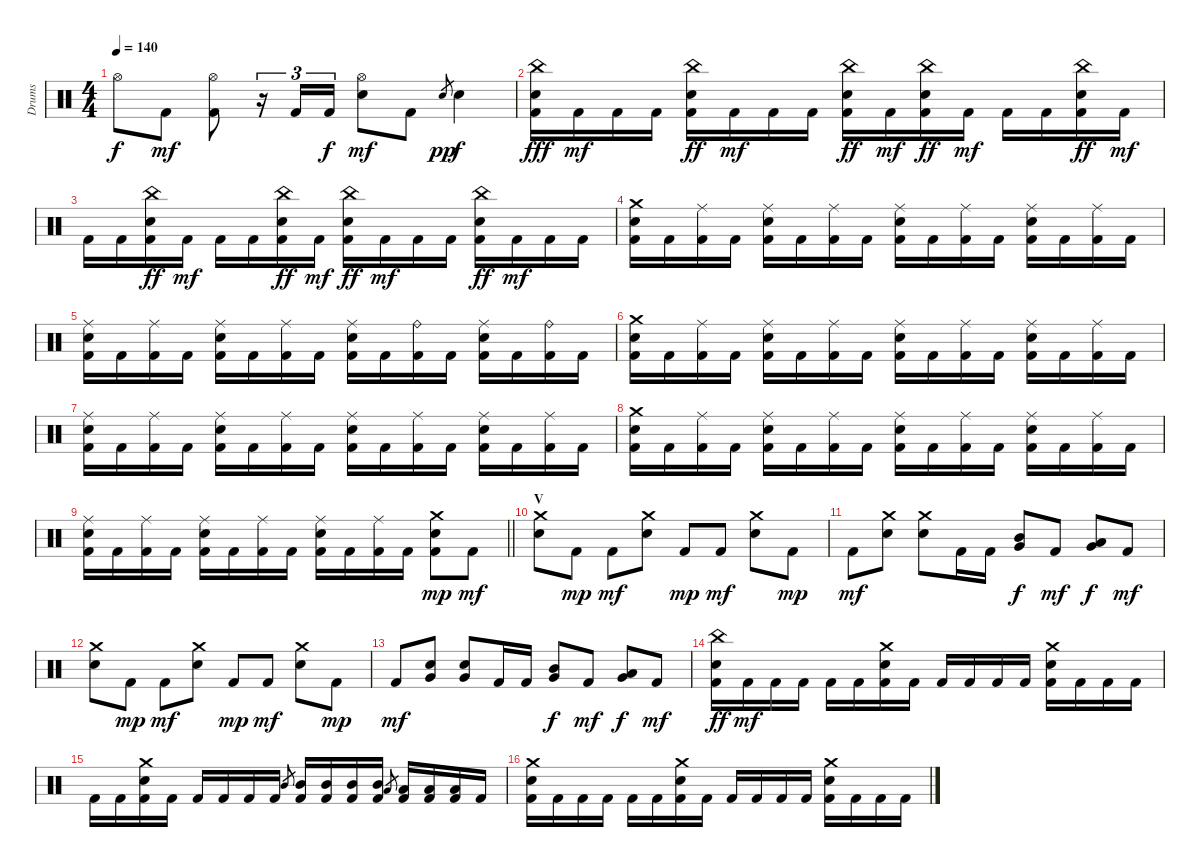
\track ("Drums" "Drums") {instrument percussion}
\staff {score}
\articulation defaults
\ts (4 4)
\tempo 140
\clef neutral
\ks c "Hi-Hat (open)".8{dy f} "Kick (hit) 2".8{dy mf}
("Kick (hit) 2" "Hi-Hat (open)").8 r.16{tu (3 2)} "Kick (hit) 2".16{tu (3 2)} "Kick (hit) 2".16{tu (3 2) dy f} ("Electric Snare (hit)" "Hi-Hat (open)").8{dy mf} "Kick (hit) 2".8 "Electric Snare (hit)".8{gr dy pp} "Electric Snare (hit)".4{dy f} |
("Kick (hit) 2" "Electric Snare (hit)" "China (hit)").16{dy fff} "Kick (hit) 2".16{dy mf} "Kick (hit) 2".16 "Kick (hit) 2".16 ("Kick (hit) 2" "Electric Snare (hit)" "China (hit)").16{dy ff} "Kick (hit) 2".16{dy mf} "Kick (hit) 2".16 "Kick (hit) 2".16 ("Kick (hit) 2" "Electric Snare (hit)" "China (hit)").16{dy ff} "Kick (hit) 2".16{dy mf} ("Kick (hit) 2" "Electric Snare (hit)" "China (hit)").16{dy ff} "Kick (hit) 2".16{dy mf} "Kick (hit) 2".16 "Kick (hit) 2".16 ("Kick (hit) 2" "Electric Snare (hit)" "China (hit)").16{dy ff} "Kick (hit) 2".16{dy mf} |
"Kick (hit) 2".16 "Kick (hit) 2".16 ("Kick (hit) 2" "Electric Snare (hit)" "China (hit)").16{dy ff} "Kick (hit) 2".16{dy mf} "Kick (hit) 2".16 "Kick (hit) 2".16 ("Kick (hit) 2" "Electric Snare (hit)" "China (hit)").16{dy ff} "Kick (hit) 2".16{dy mf} ("Kick (hit) 2" "Electric Snare (hit)" "China (hit)").16{dy ff} "Kick (hit) 2".16{dy mf} "Kick (hit) 2".16 "Kick (hit) 2".16 ("Kick (hit) 2" "Electric Snare (hit)" "China (hit)").16{dy ff} "Kick (hit) 2".16{dy mf} "Kick (hit) 2".16 "Kick (hit) 2".16 |
("Kick (hit) 2" "Electric Snare (hit)" "Crash medium (hit)").16 "Kick (hit) 2".16 ("Kick (hit) 2" "Ride (middle)").16 "Kick (hit) 2".16 ("Kick (hit) 2" "Electric Snare (hit)" "Ride (middle)").16 "Kick (hit) 2".16 ("Kick (hit) 2" "Ride (middle)").16 "Kick (hit) 2".16 ("Kick (hit) 2" "Electric Snare (hit)" "Ride (middle)").16 "Kick (hit) 2".16 ("Kick (hit) 2" "Ride (middle)").16 "Kick (hit) 2".16 ("Kick (hit) 2" "Electric Snare (hit)" "Ride (middle)").16 "Kick (hit) 2".16 ("Kick (hit) 2" "Ride (middle)").16 "Kick (hit) 2".16 |
("Kick (hit) 2" "Electric Snare (hit)" "Ride (middle)").16 "Kick (hit) 2".16 ("Kick (hit) 2" "Ride (middle)").16 "Kick (hit) 2".16 ("Kick (hit) 2" "Electric Snare (hit)" "Ride (middle)").16 "Kick (hit) 2".16 ("Kick (hit) 2" "Ride (middle)").16 "Kick (hit) 2".16 ("Kick (hit) 2" "Electric Snare (hit)" "Ride (middle)").16 "Kick (hit) 2".16 ("Kick (hit) 2" "Ride (bell)").16 "Kick (hit) 2".16 ("Kick (hit) 2" "Electric Snare (hit)" "Ride (middle)").16 "Kick (hit) 2".16 ("Kick (hit) 2" "Ride (bell)").16 "Kick (hit) 2".16 |
("Kick (hit) 2" "Electric Snare (hit)" "Crash medium (hit)").16 "Kick (hit) 2".16 ("Kick (hit) 2" "Ride (middle)").16 "Kick (hit) 2".16 ("Kick (hit) 2" "Electric Snare (hit)" "Ride (middle)").16 "Kick (hit) 2".16 ("Kick (hit) 2" "Ride (middle)").16 "Kick (hit) 2".16 ("Kick (hit) 2" "Electric Snare (hit)" "Ride (middle)").16 "Kick (hit) 2".16 ("Kick (hit) 2" "Ride (middle)").16 "Kick (hit) 2".16 ("Kick (hit) 2" "Electric Snare (hit)" "Ride (middle)").16 "Kick (hit) 2".16 ("Kick (hit) 2" "Ride (middle)").16 "Kick (hit) 2".16 |
("Kick (hit) 2" "Electric Snare (hit)" "Ride (middle)").16 "Kick (hit) 2".16 ("Kick (hit) 2" "Ride (middle)").16 "Kick (hit) 2".16 ("Kick (hit) 2" "Electric Snare (hit)" "Ride (middle)").16 "Kick (hit) 2".16 ("Kick (hit) 2" "Ride (middle)").16 "Kick (hit) 2".16 ("Kick (hit) 2" "Electric Snare (hit)" "Ride (middle)").16 "Kick (hit) 2".16 ("Kick (hit) 2" "Ride (middle)").16 "Kick (hit) 2".16 ("Kick (hit) 2" "Electric Snare (hit)" "Ride (middle)").16 "Kick (hit) 2".16 ("Kick (hit) 2" "Ride (middle)").16 "Kick (hit) 2".16 |
("Kick (hit) 2" "Electric Snare (hit)" "Crash medium (hit)").16 "Kick (hit) 2".16 ("Kick (hit) 2" "Ride (middle)").16 "Kick (hit) 2".16 ("Kick (hit) 2" "Electric Snare (hit)" "Ride (middle)").16 "Kick (hit) 2".16 ("Kick (hit) 2" "Ride (middle)").16 "Kick (hit) 2".16 ("Kick (hit) 2" "Electric Snare (hit)" "Ride (middle)").16 "Kick (hit) 2".16 ("Kick (hit) 2" "Ride (middle)").16 "Kick (hit) 2".16 ("Kick (hit) 2" "Electric Snare (hit)" "Ride (middle)").16 "Kick (hit) 2".16 ("Kick (hit) 2" "Ride (middle)").16 "Kick (hit) 2".16 |
\barLineRight lightlight
("Kick (hit) 2" "Electric Snare (hit)" "Ride (middle)").16 "Kick (hit) 2".16 ("Kick (hit) 2" "Ride (middle)").16 "Kick (hit) 2".16 ("Kick (hit) 2" "Electric Snare (hit)" "Ride (middle)").16 "Kick (hit) 2".16 ("Kick (hit) 2" "Ride (middle)").16 "Kick (hit) 2".16 ("Kick (hit) 2" "Electric Snare (hit)" "Ride (middle)").16 "Kick (hit) 2".16 ("Kick (hit) 2" "Ride (middle)").16 "Kick (hit) 2".16 ("Kick (hit) 2" "Electric Snare (hit)" "Crash medium (hit)").8{dy mp} "Kick (hit) 2".8{dy mf} |
\section ("" "V")
("Electric Snare (hit)" "Crash medium (hit)").8 "Kick (hit) 2".8{dy mp} "Kick (hit) 2".8{dy mf} ("Electric Snare (hit)" "Crash medium (hit)").8 "Kick (hit) 2".8{dy mp} "Kick (hit) 2".8{dy mf} ("Electric Snare (hit)" "Crash medium (hit)").8 "Kick (hit) 2".8{dy mp} |
"Kick (hit) 2".8{dy mf} ("Electric Snare (hit)" "Crash medium (hit)").8 ("Electric Snare (hit)" "Crash medium (hit)").8 "Kick (hit) 2".16 "Kick (hit) 2".16 ("Very Low Tom (hit)" "Mid Tom (hit)").8{dy f} "Kick (hit) 2".8{dy mf} ("Very Low Tom (hit)" "Low Tom (hit)").8{dy f} "Kick (hit) 2".8{dy mf} |
("Electric Snare (hit)" "Crash medium (hit)").8 "Kick (hit) 2".8{dy mp} "Kick (hit) 2".8{dy mf} ("Electric Snare (hit)" "Crash medium (hit)").8 "Kick (hit) 2".8{dy mp} "Kick (hit) 2".8{dy mf} ("Electric Snare (hit)" "Crash medium (hit)").8 "Kick (hit) 2".8{dy mp} |
"Kick (hit) 2".8{dy mf} ("Electric Snare (hit)" "Very Low Tom (hit)").8 ("Electric Snare (hit)" "Very Low Tom (hit)").8 "Kick (hit) 2".16 "Kick (hit) 2".16 ("Very Low Tom (hit)" "Mid Tom (hit)").8{dy f} "Kick (hit) 2".8{dy mf} ("Very Low Tom (hit)" "Low Tom (hit)").8{dy f} "Kick (hit) 2".8{dy mf} |
("Kick (hit) 2" "Electric Snare (hit)" "China (hit)").16{dy ff} "Kick (hit) 2".16{dy mf} "Kick (hit) 2".16 "Kick (hit) 2".16 "Kick (hit) 2".16 "Kick (hit) 2".16 ("Kick (hit) 2" "Electric Snare (hit)" "Crash medium (hit)").16 "Kick (hit) 2".16 "Kick (hit) 2".16 "Kick (hit) 2".16 "Kick (hit) 2".16 "Kick (hit) 2".16 ("Kick (hit) 2" "Electric Snare (hit)" "Crash medium (hit)").16 "Kick (hit) 2".16 "Kick (hit) 2".16 "Kick (hit) 2".16 |
"Kick (hit) 2".16 "Kick (hit) 2".16 ("Kick (hit) 2" "Electric Snare (hit)" "Crash medium (hit)").16 "Kick (hit) 2".16 "Kick (hit) 2".16 "Kick (hit) 2".16 "Kick (hit) 2".16 "Kick (hit) 2".16 "Mid Tom (hit)".8{gr} ("Kick (hit) 2" "Mid Tom (hit)").16 ("Kick (hit) 2" "Mid Tom (hit)").16 ("Kick (hit) 2" "Mid Tom (hit)").16 ("Kick (hit) 2" "Mid Tom (hit)").16 "Low Tom (hit)".8{gr} ("Kick (hit) 2" "Low Tom (hit)").16 ("Kick (hit) 2" "Low Tom (hit)").16 ("Kick (hit) 2" "Low Tom (hit)").16 "Kick (hit) 2".16 |
("Kick (hit) 2" "Electric Snare (hit)" "Crash medium (hit)").16 "Kick (hit) 2".16 "Kick (hit) 2".16 "Kick (hit) 2".16 "Kick (hit) 2".16 "Kick (hit) 2".16 ("Kick (hit) 2" "Electric Snare (hit)" "Crash medium (hit)").16 "Kick (hit) 2".16 "Kick (hit) 2".16 "Kick (hit) 2".16 "Kick (hit) 2".16 "Kick (hit) 2".16 ("Kick (hit) 2" "Electric Snare (hit)" "Crash medium (hit)").16 "Kick (hit) 2".16 "Kick (hit) 2".16 "Kick (hit) 2".16
